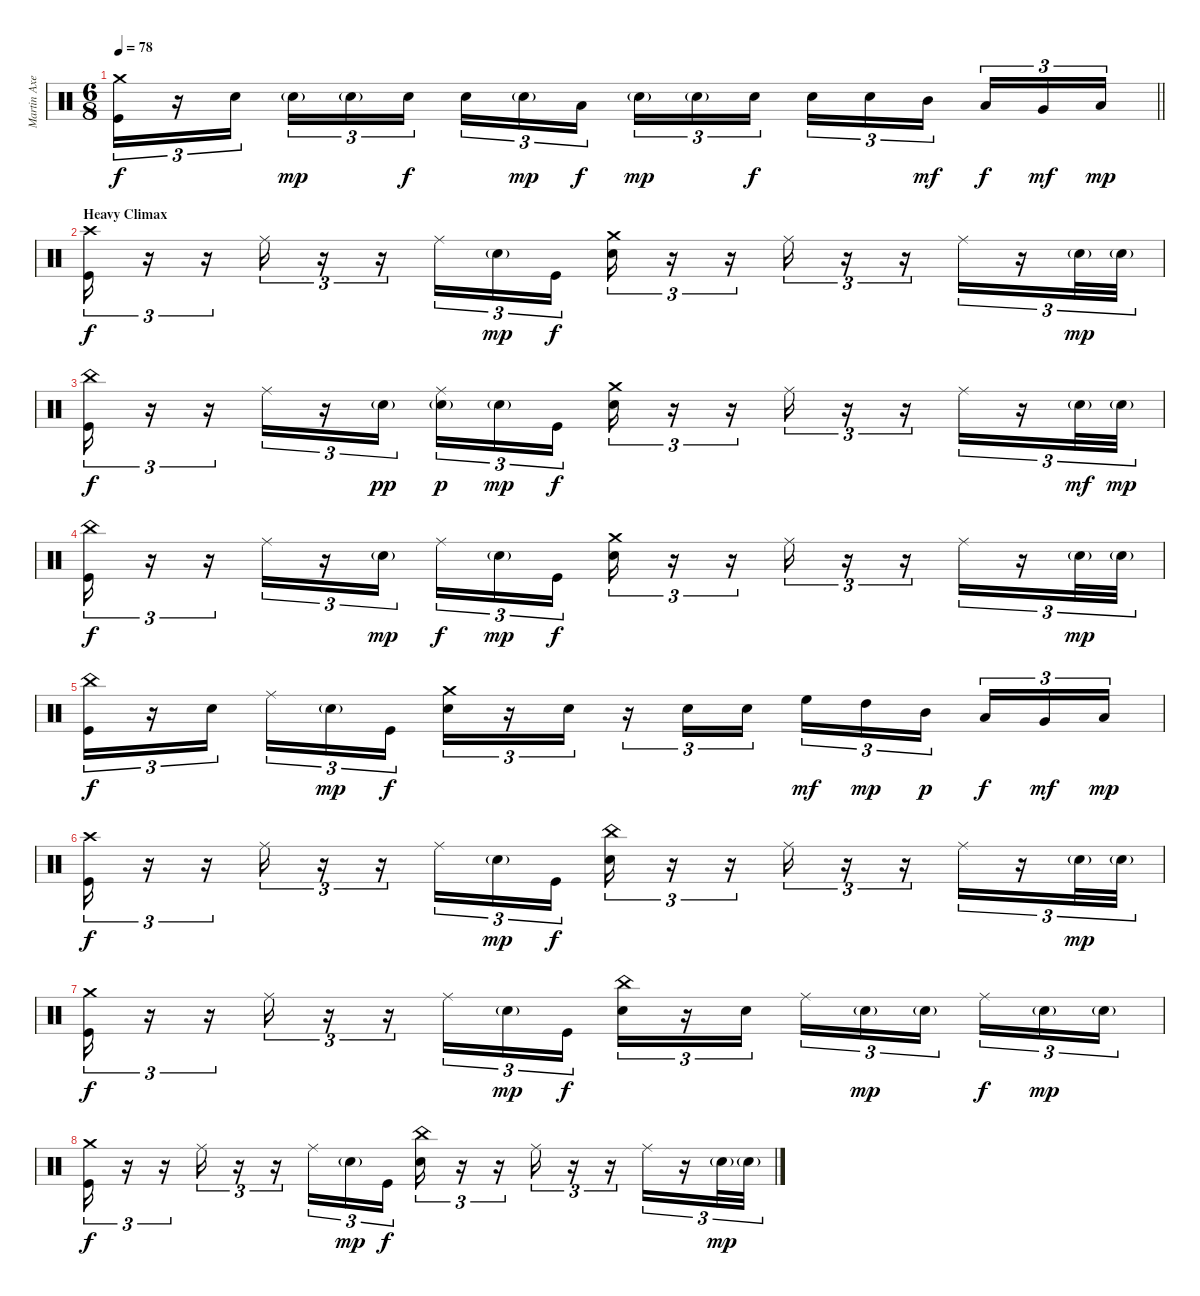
\track ("Martin Axenrot" "Martin Axe") {instrument percussion}
\staff {score}
\articulation defaults
\ts (6 8)
\tempo 78
\clef neutral
\barLineRight lightlight
\ks c
("Crash medium (hit)" "Kick (hit)").16{tu (3 2) dy f} r.16{tu (3 2)} "Snare (hit) 2".16{tu (3 2) beam splitsecondary} "Snare (hit) 2"{g}.16{tu (3 2) dy mp} "Snare (hit) 2"{g}.16{tu (3 2)} "Snare (hit) 2".16{tu (3 2) dy f beam splitsecondary} "Snare (hit) 2".16{tu (3 2)} "Snare (hit) 2"{g}.16{tu (3 2) dy mp} "Low Tom (hit)".16{tu (3 2) dy f} "Snare (hit) 2"{g}.16{tu (3 2) dy mp} "Snare (hit) 2"{g}.16{tu (3 2)} "Snare (hit) 2".16{tu (3 2) dy f beam splitsecondary} "Snare (hit) 2".16{tu (3 2)} "Snare (hit) 2".16{tu (3 2)} "Mid Tom (hit)".16{tu (3 2) dy mf beam splitsecondary} "Low Tom (hit)".16{tu (3 2) dy f} "Very Low Tom (hit)".16{tu (3 2) dy mf} "Low Floor Tom (hit)".16{tu (3 2) dy mp} |
\section ("" "Heavy Climax")
("Crash high (hit)" "Kick (hit)").16{tu (3 2) dy f} r.16{tu (3 2)} r.16{tu (3 2)} "Ride (middle)".16{tu (3 2)} r.16{tu (3 2)} r.16{tu (3 2)} "Ride (middle)".16{tu (3 2)} "Snare (hit) 2"{g}.16{tu (3 2) dy mp} "Kick (hit)".16{tu (3 2) dy f} ("Crash medium (hit)" "Snare (hit) 2").16{tu (3 2)} r.16{tu (3 2)} r.16{tu (3 2)} "Ride (middle)".16{tu (3 2)} r.16{tu (3 2)} r.16{tu (3 2)} "Ride (middle)".16{tu (3 2)} r.16{tu (3 2)} "Snare (hit) 2"{g}.32{tu (3 2) dy mp} "Snare (hit) 2"{g}.32{tu (3 2)} |
("China (hit)" "Kick (hit)").16{tu (3 2) dy f} r.16{tu (3 2)} r.16{tu (3 2)} "Ride (middle)".16{tu (3 2)} r.16{tu (3 2)} "Snare (hit) 2"{g}.16{tu (3 2) dy pp beam splitsecondary} ("Ride (middle)" "Snare (hit) 2"{g}).16{tu (3 2) dy p} "Snare (hit) 2"{g}.16{tu (3 2) dy mp} "Kick (hit)".16{tu (3 2) dy f} ("Crash medium (hit)" "Snare (hit) 2").16{tu (3 2)} r.16{tu (3 2)} r.16{tu (3 2)} "Ride (middle)".16{tu (3 2)} r.16{tu (3 2)} r.16{tu (3 2)} "Ride (middle)".16{tu (3 2)} r.16{tu (3 2)} "Snare (hit) 2"{g}.32{tu (3 2) dy mf} "Snare (hit) 2"{g}.32{tu (3 2) dy mp} |
("China (hit)" "Kick (hit)").16{tu (3 2) dy f} r.16{tu (3 2)} r.16{tu (3 2)} "Ride (middle)".16{tu (3 2)} r.16{tu (3 2)} "Snare (hit) 2"{g}.16{tu (3 2) dy mp beam splitsecondary} "Ride (middle)".16{tu (3 2) dy f} "Snare (hit) 2"{g}.16{tu (3 2) dy mp} "Kick (hit)".16{tu (3 2) dy f} ("Crash medium (hit)" "Snare (hit) 2").16{tu (3 2)} r.16{tu (3 2)} r.16{tu (3 2)} "Ride (middle)".16{tu (3 2)} r.16{tu (3 2)} r.16{tu (3 2)} "Ride (middle)".16{tu (3 2)} r.16{tu (3 2)} "Snare (hit) 2"{g}.32{tu (3 2) dy mp} "Snare (hit) 2"{g}.32{tu (3 2)} |
("China (hit)" "Kick (hit)").16{tu (3 2) dy f} r.16{tu (3 2)} "Snare (hit) 2".16{tu (3 2) beam splitsecondary} "Ride (middle)".16{tu (3 2)} "Snare (hit) 2"{g}.16{tu (3 2) dy mp} "Kick (hit)".16{tu (3 2) dy f beam splitsecondary} ("Crash medium (hit)" "Snare (hit) 2").16{tu (3 2)} r.16{tu (3 2)} "Snare (hit) 2".16{tu (3 2)} r.16{tu (3 2)} "Snare (hit) 2".16{tu (3 2)} "Snare (hit) 2".16{tu (3 2) beam splitsecondary} "High Floor Tom (hit)".16{tu (3 2) dy mf} "High Tom (hit)".16{tu (3 2) dy mp} "Mid Tom (hit)".16{tu (3 2) dy p beam splitsecondary} "Low Tom (hit)".16{tu (3 2) dy f} "Very Low Tom (hit)".16{tu (3 2) dy mf} "Low Floor Tom (hit)".16{tu (3 2) dy mp} |
("Crash high (hit)" "Kick (hit)").16{tu (3 2) dy f} r.16{tu (3 2)} r.16{tu (3 2)} "Ride (middle)".16{tu (3 2)} r.16{tu (3 2)} r.16{tu (3 2)} "Ride (middle)".16{tu (3 2)} "Snare (hit) 2"{g}.16{tu (3 2) dy mp} "Kick (hit)".16{tu (3 2) dy f} ("China (hit)" "Snare (hit) 2").16{tu (3 2)} r.16{tu (3 2)} r.16{tu (3 2)} "Ride (middle)".16{tu (3 2)} r.16{tu (3 2)} r.16{tu (3 2)} "Ride (middle)".16{tu (3 2)} r.16{tu (3 2)} "Snare (hit) 2"{g}.32{tu (3 2) dy mp} "Snare (hit) 2"{g}.32{tu (3 2)} |
("Crash medium (hit)" "Kick (hit)").16{tu (3 2) dy f} r.16{tu (3 2)} r.16{tu (3 2)} "Ride (middle)".16{tu (3 2)} r.16{tu (3 2)} r.16{tu (3 2)} "Ride (middle)".16{tu (3 2)} "Snare (hit) 2"{g}.16{tu (3 2) dy mp} "Kick (hit)".16{tu (3 2) dy f} ("China (hit)" "Snare (hit) 2").16{tu (3 2)} r.16{tu (3 2)} "Snare (hit) 2".16{tu (3 2) beam splitsecondary} "Ride (middle)".16{tu (3 2)} "Snare (hit) 2"{g}.16{tu (3 2) dy mp} "Snare (hit) 2"{g}.16{tu (3 2) beam splitsecondary} "Ride (middle)".16{tu (3 2) dy f} "Snare (hit) 2"{g}.16{tu (3 2) dy mp} "Snare (hit) 2"{g}.16{tu (3 2)} |
("Crash medium (hit)" "Kick (hit)").16{tu (3 2) dy f} r.16{tu (3 2)} r.16{tu (3 2)} "Ride (middle)".16{tu (3 2)} r.16{tu (3 2)} r.16{tu (3 2)} "Ride (middle)".16{tu (3 2)} "Snare (hit) 2"{g}.16{tu (3 2) dy mp} "Kick (hit)".16{tu (3 2) dy f} ("China (hit)" "Snare (hit) 2").16{tu (3 2)} r.16{tu (3 2)} r.16{tu (3 2)} "Ride (middle)".16{tu (3 2)} r.16{tu (3 2)} r.16{tu (3 2)} "Ride (middle)".16{tu (3 2)} r.16{tu (3 2)} "Snare (hit) 2"{g}.32{tu (3 2) dy mp} "Snare (hit) 2"{g}.32{tu (3 2)}
